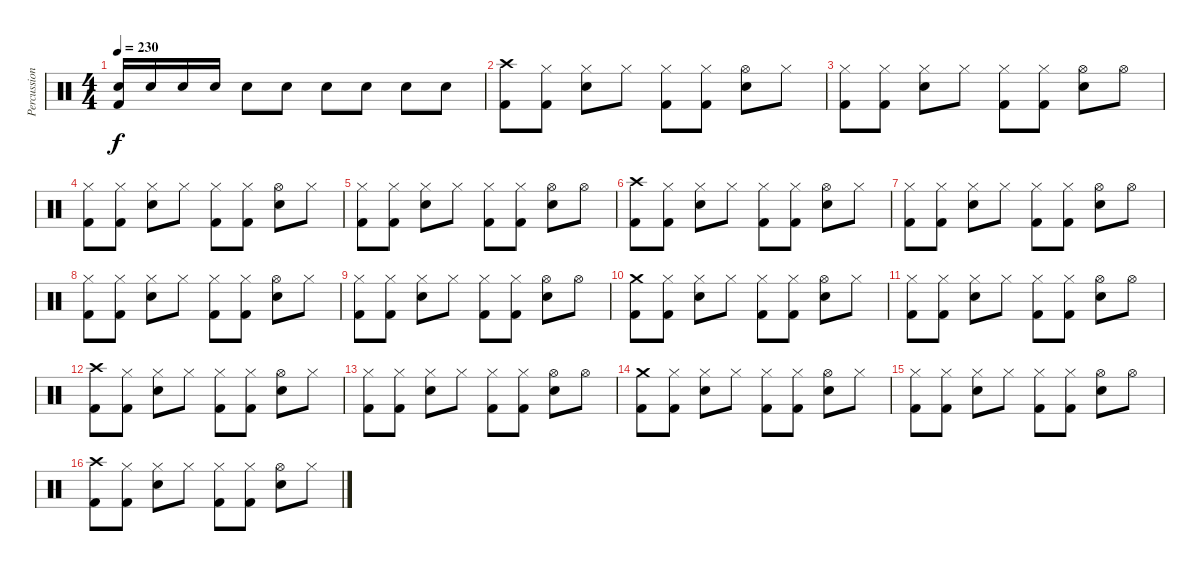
\track ("Percussion" "Percussion") {instrument percussion}
\staff {score}
\articulation defaults
\ts (4 4)
\tempo 230
\clef neutral
\ks c
("Snare (hit) 2" "Kick (hit) 2").16{dy f} "Snare (hit) 2".16 "Snare (hit) 2".16 "Snare (hit) 2".16 "Snare (hit) 2".8 "Snare (hit) 2".8 "Snare (hit) 2".8 "Snare (hit) 2".8 "Snare (hit) 2".8 "Snare (hit) 2".8 |
("Crash high (hit)" "Kick (hit) 2").8 ("Hi-Hat (closed)" "Kick (hit) 2").8 ("Hi-Hat (closed)" "Snare (hit) 2").8 "Hi-Hat (closed)".8 ("Hi-Hat (closed)" "Kick (hit) 2").8 ("Hi-Hat (closed)" "Kick (hit) 2").8 ("Hi-Hat (open)" "Snare (hit) 2").8 "Hi-Hat (closed)".8 |
("Hi-Hat (closed)" "Kick (hit) 2").8 ("Hi-Hat (closed)" "Kick (hit) 2").8 ("Hi-Hat (closed)" "Snare (hit) 2").8 "Hi-Hat (closed)".8 ("Hi-Hat (closed)" "Kick (hit) 2").8 ("Hi-Hat (closed)" "Kick (hit) 2").8 ("Hi-Hat (open)" "Snare (hit) 2").8 "Hi-Hat (open)".8 |
("Hi-Hat (closed)" "Kick (hit) 2").8 ("Hi-Hat (closed)" "Kick (hit) 2").8 ("Hi-Hat (closed)" "Snare (hit) 2").8 "Hi-Hat (closed)".8 ("Hi-Hat (closed)" "Kick (hit) 2").8 ("Hi-Hat (closed)" "Kick (hit) 2").8 ("Hi-Hat (open)" "Snare (hit) 2").8 "Hi-Hat (closed)".8 |
("Hi-Hat (closed)" "Kick (hit) 2").8 ("Hi-Hat (closed)" "Kick (hit) 2").8 ("Hi-Hat (closed)" "Snare (hit) 2").8 "Hi-Hat (closed)".8 ("Hi-Hat (closed)" "Kick (hit) 2").8 ("Hi-Hat (closed)" "Kick (hit) 2").8 ("Hi-Hat (open)" "Snare (hit) 2").8 "Hi-Hat (open)".8 |
("Crash high (hit)" "Kick (hit) 2").8 ("Hi-Hat (closed)" "Kick (hit) 2").8 ("Hi-Hat (closed)" "Snare (hit) 2").8 "Hi-Hat (closed)".8 ("Hi-Hat (closed)" "Kick (hit) 2").8 ("Hi-Hat (closed)" "Kick (hit) 2").8 ("Hi-Hat (open)" "Snare (hit) 2").8 "Hi-Hat (closed)".8 |
("Hi-Hat (closed)" "Kick (hit) 2").8 ("Hi-Hat (closed)" "Kick (hit) 2").8 ("Hi-Hat (closed)" "Snare (hit) 2").8 "Hi-Hat (closed)".8 ("Hi-Hat (closed)" "Kick (hit) 2").8 ("Hi-Hat (closed)" "Kick (hit) 2").8 ("Hi-Hat (open)" "Snare (hit) 2").8 "Hi-Hat (open)".8 |
("Hi-Hat (closed)" "Kick (hit) 2").8 ("Hi-Hat (closed)" "Kick (hit) 2").8 ("Hi-Hat (closed)" "Snare (hit) 2").8 "Hi-Hat (closed)".8 ("Hi-Hat (closed)" "Kick (hit) 2").8 ("Hi-Hat (closed)" "Kick (hit) 2").8 ("Hi-Hat (open)" "Snare (hit) 2").8 "Hi-Hat (closed)".8 |
("Hi-Hat (closed)" "Kick (hit) 2").8 ("Hi-Hat (closed)" "Kick (hit) 2").8 ("Hi-Hat (closed)" "Snare (hit) 2").8 "Hi-Hat (closed)".8 ("Hi-Hat (closed)" "Kick (hit) 2").8 ("Hi-Hat (closed)" "Kick (hit) 2").8 ("Hi-Hat (open)" "Snare (hit) 2").8 "Hi-Hat (open)".8 |
("Crash medium (hit)" "Kick (hit) 2").8 ("Hi-Hat (closed)" "Kick (hit) 2").8 ("Hi-Hat (closed)" "Snare (hit) 2").8 "Hi-Hat (closed)".8 ("Hi-Hat (closed)" "Kick (hit) 2").8 ("Hi-Hat (closed)" "Kick (hit) 2").8 ("Hi-Hat (open)" "Snare (hit) 2").8 "Hi-Hat (closed)".8 |
("Hi-Hat (closed)" "Kick (hit) 2").8 ("Hi-Hat (closed)" "Kick (hit) 2").8 ("Hi-Hat (closed)" "Snare (hit) 2").8 "Hi-Hat (closed)".8 ("Hi-Hat (closed)" "Kick (hit) 2").8 ("Hi-Hat (closed)" "Kick (hit) 2").8 ("Hi-Hat (open)" "Snare (hit) 2").8 "Hi-Hat (open)".8 |
("Crash high (hit)" "Kick (hit) 2").8 ("Hi-Hat (closed)" "Kick (hit) 2").8 ("Hi-Hat (closed)" "Snare (hit) 2").8 "Hi-Hat (closed)".8 ("Hi-Hat (closed)" "Kick (hit) 2").8 ("Hi-Hat (closed)" "Kick (hit) 2").8 ("Hi-Hat (open)" "Snare (hit) 2").8 "Hi-Hat (closed)".8 |
("Hi-Hat (closed)" "Kick (hit) 2").8 ("Hi-Hat (closed)" "Kick (hit) 2").8 ("Hi-Hat (closed)" "Snare (hit) 2").8 "Hi-Hat (closed)".8 ("Hi-Hat (closed)" "Kick (hit) 2").8 ("Hi-Hat (closed)" "Kick (hit) 2").8 ("Hi-Hat (open)" "Snare (hit) 2").8 "Hi-Hat (open)".8 |
("Crash medium (hit)" "Kick (hit) 2").8 ("Hi-Hat (closed)" "Kick (hit) 2").8 ("Hi-Hat (closed)" "Snare (hit) 2").8 "Hi-Hat (closed)".8 ("Hi-Hat (closed)" "Kick (hit) 2").8 ("Hi-Hat (closed)" "Kick (hit) 2").8 ("Hi-Hat (open)" "Snare (hit) 2").8 "Hi-Hat (closed)".8 |
("Hi-Hat (closed)" "Kick (hit) 2").8 ("Hi-Hat (closed)" "Kick (hit) 2").8 ("Hi-Hat (closed)" "Snare (hit) 2").8 "Hi-Hat (closed)".8 ("Hi-Hat (closed)" "Kick (hit) 2").8 ("Hi-Hat (closed)" "Kick (hit) 2").8 ("Hi-Hat (open)" "Snare (hit) 2").8 "Hi-Hat (open)".8 |
("Crash high (hit)" "Kick (hit) 2").8 ("Hi-Hat (closed)" "Kick (hit) 2").8 ("Hi-Hat (closed)" "Snare (hit) 2").8 "Hi-Hat (closed)".8 ("Hi-Hat (closed)" "Kick (hit) 2").8 ("Hi-Hat (closed)" "Kick (hit) 2").8 ("Hi-Hat (open)" "Snare (hit) 2").8 "Hi-Hat (closed)".8
